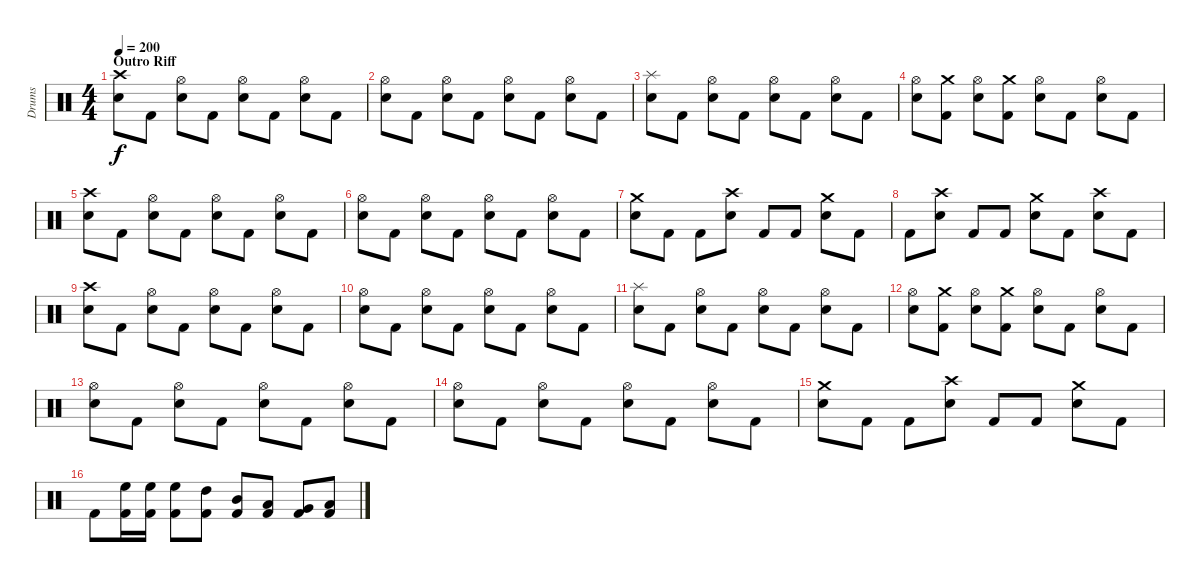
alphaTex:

\track ("Drums" "Drums") {instrument percussion}
\staff {score}
\articulation defaults
\ts (4 4)
\section ("" "Outro Riff")
\tempo 200
\clef neutral
\ks c
("Electric Snare (hit)" "Crash high (hit)").8{dy f} "Kick (hit) 2".8 ("Electric Snare (hit)" "Hi-Hat (open)").8 "Kick (hit) 2".8 ("Electric Snare (hit)" "Hi-Hat (open)").8 "Kick (hit) 2".8 ("Electric Snare (hit)" "Hi-Hat (open)").8 "Kick (hit) 2".8 |
("Electric Snare (hit)" "Hi-Hat (open)").8 "Kick (hit) 2".8 ("Electric Snare (hit)" "Hi-Hat (open)").8 "Kick (hit) 2".8 ("Electric Snare (hit)" "Hi-Hat (open)").8 "Kick (hit) 2".8 ("Electric Snare (hit)" "Hi-Hat (open)").8 "Kick (hit) 2".8 |
("Electric Snare (hit)" "Splash (hit)").8 "Kick (hit) 2".8 ("Electric Snare (hit)" "Hi-Hat (open)").8 "Kick (hit) 2".8 ("Electric Snare (hit)" "Hi-Hat (open)").8 "Kick (hit) 2".8 ("Electric Snare (hit)" "Hi-Hat (open)").8 "Kick (hit) 2".8 |
("Electric Snare (hit)" "Hi-Hat (open)").8 ("Kick (hit) 2" "Crash medium (hit)").8 ("Electric Snare (hit)" "Hi-Hat (open)").8 ("Kick (hit) 2" "Crash medium (hit)").8 ("Electric Snare (hit)" "Hi-Hat (open)").8 "Kick (hit) 2".8 ("Electric Snare (hit)" "Hi-Hat (open)").8 "Kick (hit) 2".8 |
("Electric Snare (hit)" "Crash high (hit)").8 "Kick (hit) 2".8 ("Electric Snare (hit)" "Hi-Hat (open)").8 "Kick (hit) 2".8 ("Electric Snare (hit)" "Hi-Hat (open)").8 "Kick (hit) 2".8 ("Electric Snare (hit)" "Hi-Hat (open)").8 "Kick (hit) 2".8 |
("Electric Snare (hit)" "Hi-Hat (open)").8 "Kick (hit) 2".8 ("Electric Snare (hit)" "Hi-Hat (open)").8 "Kick (hit) 2".8 ("Electric Snare (hit)" "Hi-Hat (open)").8 "Kick (hit) 2".8 ("Electric Snare (hit)" "Hi-Hat (open)").8 "Kick (hit) 2".8 |
("Electric Snare (hit)" "Crash medium (hit)").8 "Kick (hit) 2".8 "Kick (hit) 2".8 ("Electric Snare (hit)" "Crash high (hit)").8 "Kick (hit) 2".8 "Kick (hit) 2".8 ("Electric Snare (hit)" "Crash medium (hit)").8 "Kick (hit) 2".8 |
"Kick (hit) 2".8 ("Electric Snare (hit)" "Crash high (hit)").8 "Kick (hit) 2".8 "Kick (hit) 2".8 ("Electric Snare (hit)" "Crash medium (hit)").8 "Kick (hit) 2".8 ("Electric Snare (hit)" "Crash high (hit)").8 "Kick (hit) 2".8 |
("Electric Snare (hit)" "Crash high (hit)").8 "Kick (hit) 2".8 ("Electric Snare (hit)" "Hi-Hat (open)").8 "Kick (hit) 2".8 ("Electric Snare (hit)" "Hi-Hat (open)").8 "Kick (hit) 2".8 ("Electric Snare (hit)" "Hi-Hat (open)").8 "Kick (hit) 2".8 |
("Electric Snare (hit)" "Hi-Hat (open)").8 "Kick (hit) 2".8 ("Electric Snare (hit)" "Hi-Hat (open)").8 "Kick (hit) 2".8 ("Electric Snare (hit)" "Hi-Hat (open)").8 "Kick (hit) 2".8 ("Electric Snare (hit)" "Hi-Hat (open)").8 "Kick (hit) 2".8 |
("Electric Snare (hit)" "Splash (hit)").8 "Kick (hit) 2".8 ("Electric Snare (hit)" "Hi-Hat (open)").8 "Kick (hit) 2".8 ("Electric Snare (hit)" "Hi-Hat (open)").8 "Kick (hit) 2".8 ("Electric Snare (hit)" "Hi-Hat (open)").8 "Kick (hit) 2".8 |
("Electric Snare (hit)" "Hi-Hat (open)").8 ("Kick (hit) 2" "Crash medium (hit)").8 ("Electric Snare (hit)" "Hi-Hat (open)").8 ("Kick (hit) 2" "Crash medium (hit)").8 ("Electric Snare (hit)" "Hi-Hat (open)").8 "Kick (hit) 2".8 ("Electric Snare (hit)" "Hi-Hat (open)").8 "Kick (hit) 2".8 |
("Electric Snare (hit)" "Hi-Hat (open)").8 "Kick (hit) 2".8 ("Electric Snare (hit)" "Hi-Hat (open)").8 "Kick (hit) 2".8 ("Electric Snare (hit)" "Hi-Hat (open)").8 "Kick (hit) 2".8 ("Electric Snare (hit)" "Hi-Hat (open)").8 "Kick (hit) 2".8 |
("Electric Snare (hit)" "Hi-Hat (open)").8 "Kick (hit) 2".8 ("Electric Snare (hit)" "Hi-Hat (open)").8 "Kick (hit) 2".8 ("Electric Snare (hit)" "Hi-Hat (open)").8 "Kick (hit) 2".8 ("Electric Snare (hit)" "Hi-Hat (open)").8 "Kick (hit) 2".8 |
("Electric Snare (hit)" "Crash medium (hit)").8 "Kick (hit) 2".8 "Kick (hit) 2".8 ("Electric Snare (hit)" "Crash high (hit)").8 "Kick (hit) 2".8 "Kick (hit) 2".8 ("Electric Snare (hit)" "Crash medium (hit)").8 "Kick (hit) 2".8 |
"Kick (hit) 2".8 ("Kick (hit) 2" "High Floor Tom (hit)").16 ("Kick (hit) 2" "High Floor Tom (hit)").16 ("Kick (hit) 2" "High Floor Tom (hit)").8 ("Kick (hit) 2" "High Tom (hit)").8 ("Kick (hit) 2" "Mid Tom (hit)").8 ("Kick (hit) 2" "Low Tom (hit)").8 ("Kick (hit) 2" "Very Low Tom (hit)").8 ("Kick (hit) 2" "Low Floor Tom (hit)").8
